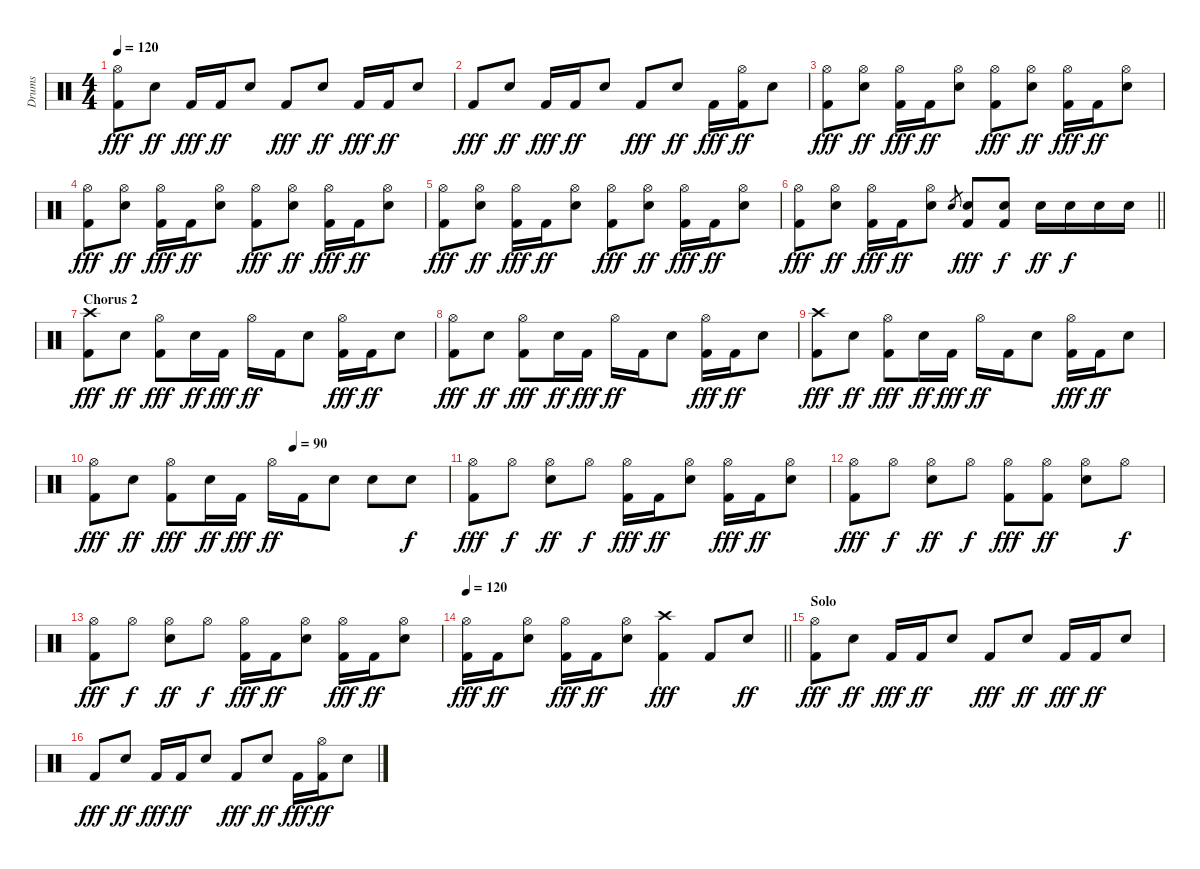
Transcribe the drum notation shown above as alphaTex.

\track ("Drums" "Drums") {instrument percussion}
\staff {score}
\articulation defaults
\ts (4 4)
\tempo 120
\clef neutral
\ks c
("Hi-Hat (open)" "Kick (hit) 2").8{dy fff} "Snare (hit) 2".8{dy ff} "Kick (hit) 2".16{dy fff} "Kick (hit) 2".16{dy ff} "Snare (hit) 2".8 "Kick (hit) 2".8{dy fff} "Snare (hit) 2".8{dy ff} "Kick (hit) 2".16{dy fff} "Kick (hit) 2".16{dy ff} "Snare (hit) 2".8 |
"Kick (hit) 2".8{dy fff} "Snare (hit) 2".8{dy ff} "Kick (hit) 2".16{dy fff} "Kick (hit) 2".16{dy ff} "Snare (hit) 2".8 "Kick (hit) 2".8{dy fff} "Snare (hit) 2".8{dy ff} "Kick (hit) 2".16{dy fff} ("Hi-Hat (open)" "Kick (hit) 2").16{dy ff} "Snare (hit) 2".8 |
("Hi-Hat (open)" "Kick (hit) 2").8{dy fff} ("Hi-Hat (open)" "Snare (hit) 2").8{dy ff} ("Hi-Hat (open)" "Kick (hit) 2").16{dy fff} "Kick (hit) 2".16{dy ff} ("Hi-Hat (open)" "Snare (hit) 2").8 ("Hi-Hat (open)" "Kick (hit) 2").8{dy fff} ("Hi-Hat (open)" "Snare (hit) 2").8{dy ff} ("Hi-Hat (open)" "Kick (hit) 2").16{dy fff} "Kick (hit) 2".16{dy ff} ("Hi-Hat (open)" "Snare (hit) 2").8 |
("Hi-Hat (open)" "Kick (hit) 2").8{dy fff} ("Hi-Hat (open)" "Snare (hit) 2").8{dy ff} ("Hi-Hat (open)" "Kick (hit) 2").16{dy fff} "Kick (hit) 2".16{dy ff} ("Hi-Hat (open)" "Snare (hit) 2").8 ("Hi-Hat (open)" "Kick (hit) 2").8{dy fff} ("Hi-Hat (open)" "Snare (hit) 2").8{dy ff} ("Hi-Hat (open)" "Kick (hit) 2").16{dy fff} "Kick (hit) 2".16{dy ff} ("Hi-Hat (open)" "Snare (hit) 2").8 |
("Hi-Hat (open)" "Kick (hit) 2").8{dy fff} ("Hi-Hat (open)" "Snare (hit) 2").8{dy ff} ("Hi-Hat (open)" "Kick (hit) 2").16{dy fff} "Kick (hit) 2".16{dy ff} ("Hi-Hat (open)" "Snare (hit) 2").8 ("Hi-Hat (open)" "Kick (hit) 2").8{dy fff} ("Hi-Hat (open)" "Snare (hit) 2").8{dy ff} ("Hi-Hat (open)" "Kick (hit) 2").16{dy fff} "Kick (hit) 2".16{dy ff} ("Hi-Hat (open)" "Snare (hit) 2").8 |
\barLineRight lightlight
("Hi-Hat (open)" "Kick (hit) 2").8{dy fff} ("Hi-Hat (open)" "Snare (hit) 2").8{dy ff} ("Hi-Hat (open)" "Kick (hit) 2").16{dy fff} "Kick (hit) 2".16{dy ff} ("Hi-Hat (open)" "Snare (hit) 2").8 "Snare (hit) 2".8{gr} ("Snare (hit) 2" "Kick (hit) 2").8{dy fff} ("Snare (hit) 2" "Kick (hit) 2").8{dy f} "Snare (hit) 2".16{dy ff} "Snare (hit) 2".16{dy f} "Snare (hit) 2".16 "Snare (hit) 2".16 |
\section ("" "Chorus 2")
("Crash high (hit)" "Kick (hit) 2").8{dy fff} "Snare (hit) 2".8{dy ff} ("Hi-Hat (open)" "Kick (hit) 2").8{dy fff} "Snare (hit) 2".16{dy ff} "Kick (hit) 2".16{dy fff} "Hi-Hat (open)".16{dy ff} "Kick (hit) 2".16 "Snare (hit) 2".8 ("Hi-Hat (open)" "Kick (hit) 2").16{dy fff} "Kick (hit) 2".16{dy ff} "Snare (hit) 2".8 |
("Hi-Hat (open)" "Kick (hit) 2").8{dy fff} "Snare (hit) 2".8{dy ff} ("Hi-Hat (open)" "Kick (hit) 2").8{dy fff} "Snare (hit) 2".16{dy ff} "Kick (hit) 2".16{dy fff} "Hi-Hat (open)".16{dy ff} "Kick (hit) 2".16 "Snare (hit) 2".8 ("Hi-Hat (open)" "Kick (hit) 2").16{dy fff} "Kick (hit) 2".16{dy ff} "Snare (hit) 2".8 |
("Crash high (hit)" "Kick (hit) 2").8{dy fff} "Snare (hit) 2".8{dy ff} ("Hi-Hat (open)" "Kick (hit) 2").8{dy fff} "Snare (hit) 2".16{dy ff} "Kick (hit) 2".16{dy fff} "Hi-Hat (open)".16{dy ff} "Kick (hit) 2".16 "Snare (hit) 2".8 ("Hi-Hat (open)" "Kick (hit) 2").16{dy fff} "Kick (hit) 2".16{dy ff} "Snare (hit) 2".8 |
\tempo (90 0.5625)
("Hi-Hat (open)" "Kick (hit) 2").8{dy fff} "Snare (hit) 2".8{dy ff} ("Hi-Hat (open)" "Kick (hit) 2").8{dy fff} "Snare (hit) 2".16{dy ff} "Kick (hit) 2".16{dy fff} "Hi-Hat (open)".16{dy ff} "Kick (hit) 2".16 "Snare (hit) 2".8 "Snare (hit) 2".8 "Snare (hit) 2".8{dy f} |
("Hi-Hat (open)" "Kick (hit) 2").8{dy fff} "Hi-Hat (open)".8{dy f} ("Hi-Hat (open)" "Snare (hit) 2").8{dy ff} "Hi-Hat (open)".8{dy f} ("Hi-Hat (open)" "Kick (hit) 2").16{dy fff} "Kick (hit) 2".16{dy ff} ("Hi-Hat (open)" "Snare (hit) 2").8 ("Hi-Hat (open)" "Kick (hit) 2").16{dy fff} "Kick (hit) 2".16{dy ff} ("Hi-Hat (open)" "Snare (hit) 2").8 |
("Hi-Hat (open)" "Kick (hit) 2").8{dy fff} "Hi-Hat (open)".8{dy f} ("Hi-Hat (open)" "Snare (hit) 2").8{dy ff} "Hi-Hat (open)".8{dy f} ("Hi-Hat (open)" "Kick (hit) 2").8{dy fff} ("Hi-Hat (open)" "Kick (hit) 2").8{dy ff} ("Hi-Hat (open)" "Snare (hit) 2").8 "Hi-Hat (open)".8{dy f} |
("Hi-Hat (open)" "Kick (hit) 2").8{dy fff} "Hi-Hat (open)".8{dy f} ("Hi-Hat (open)" "Snare (hit) 2").8{dy ff} "Hi-Hat (open)".8{dy f} ("Hi-Hat (open)" "Kick (hit) 2").16{dy fff} "Kick (hit) 2".16{dy ff} ("Hi-Hat (open)" "Snare (hit) 2").8 ("Hi-Hat (open)" "Kick (hit) 2").16{dy fff} "Kick (hit) 2".16{dy ff} ("Hi-Hat (open)" "Snare (hit) 2").8 |
\tempo 120
\barLineRight lightlight
("Hi-Hat (open)" "Kick (hit) 2").16{dy fff} "Kick (hit) 2".16{dy ff} ("Hi-Hat (open)" "Snare (hit) 2").8 ("Hi-Hat (open)" "Kick (hit) 2").16{dy fff} "Kick (hit) 2".16{dy ff} ("Hi-Hat (open)" "Snare (hit) 2").8 ("Crash high (hit)" "Kick (hit) 2").4{dy fff} "Kick (hit) 2".8 "Snare (hit) 2".8{dy ff} |
\section ("" "Solo")
("Hi-Hat (open)" "Kick (hit) 2").8{dy fff} "Snare (hit) 2".8{dy ff} "Kick (hit) 2".16{dy fff} "Kick (hit) 2".16{dy ff} "Snare (hit) 2".8 "Kick (hit) 2".8{dy fff} "Snare (hit) 2".8{dy ff} "Kick (hit) 2".16{dy fff} "Kick (hit) 2".16{dy ff} "Snare (hit) 2".8 |
"Kick (hit) 2".8{dy fff} "Snare (hit) 2".8{dy ff} "Kick (hit) 2".16{dy fff} "Kick (hit) 2".16{dy ff} "Snare (hit) 2".8 "Kick (hit) 2".8{dy fff} "Snare (hit) 2".8{dy ff} "Kick (hit) 2".16{dy fff} ("Hi-Hat (open)" "Kick (hit) 2").16{dy ff} "Snare (hit) 2".8
